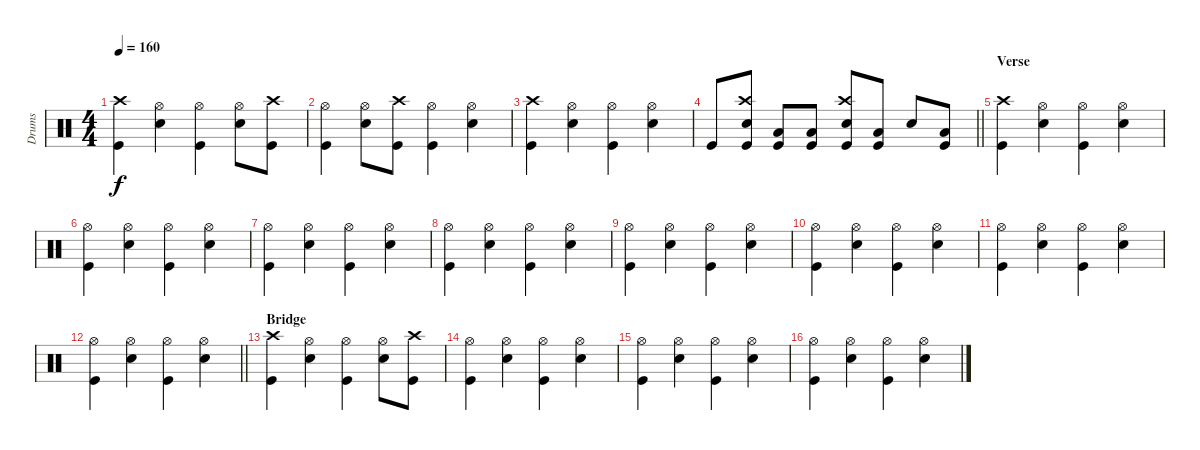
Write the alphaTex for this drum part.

\track ("Drums" "Drums") {instrument percussion}
\staff {score}
\articulation defaults
\ts (4 4)
\tempo 160
\clef neutral
\ks c
("Kick (hit)" "Crash high (hit)").4{dy f} ("Snare (hit) 2" "Hi-Hat (open)").4 ("Kick (hit)" "Hi-Hat (open)").4 ("Snare (hit) 2" "Hi-Hat (open)").8 ("Kick (hit)" "Crash high (hit)").8 |
("Kick (hit)" "Hi-Hat (open)").4 ("Snare (hit) 2" "Hi-Hat (open)").8 ("Kick (hit)" "Crash high (hit)").8 ("Kick (hit)" "Hi-Hat (open)").4 ("Snare (hit) 2" "Hi-Hat (open)").4 |
("Kick (hit)" "Crash high (hit)").4 ("Snare (hit) 2" "Hi-Hat (open)").4 ("Kick (hit)" "Hi-Hat (open)").4 ("Snare (hit) 2" "Hi-Hat (open)").4 |
\barLineRight lightlight "Kick (hit)".8
("Snare (hit) 2" "Kick (hit)" "Crash high (hit)").8 ("Kick (hit)" "Low Floor Tom (hit)").8 ("Kick (hit)" "Low Floor Tom (hit)").8 ("Snare (hit) 2" "Kick (hit)" "Crash high (hit)").8 ("Kick (hit)" "Low Floor Tom (hit)").8 "Snare (hit) 2".8 ("Kick (hit)" "Low Floor Tom (hit)").8 |
\section ("" "Verse")
("Kick (hit)" "Crash high (hit)").4 ("Snare (hit) 2" "Hi-Hat (open)").4 ("Kick (hit)" "Hi-Hat (open)").4 ("Snare (hit) 2" "Hi-Hat (open)").4 |
("Kick (hit)" "Hi-Hat (open)").4 ("Snare (hit) 2" "Hi-Hat (open)").4 ("Kick (hit)" "Hi-Hat (open)").4 ("Snare (hit) 2" "Hi-Hat (open)").4 |
("Kick (hit)" "Hi-Hat (open)").4 ("Snare (hit) 2" "Hi-Hat (open)").4 ("Kick (hit)" "Hi-Hat (open)").4 ("Snare (hit) 2" "Hi-Hat (open)").4 |
("Kick (hit)" "Hi-Hat (open)").4 ("Snare (hit) 2" "Hi-Hat (open)").4 ("Kick (hit)" "Hi-Hat (open)").4 ("Snare (hit) 2" "Hi-Hat (open)").4 |
("Kick (hit)" "Hi-Hat (open)").4 ("Snare (hit) 2" "Hi-Hat (open)").4 ("Kick (hit)" "Hi-Hat (open)").4 ("Snare (hit) 2" "Hi-Hat (open)").4 |
("Kick (hit)" "Hi-Hat (open)").4 ("Snare (hit) 2" "Hi-Hat (open)").4 ("Kick (hit)" "Hi-Hat (open)").4 ("Snare (hit) 2" "Hi-Hat (open)").4 |
("Kick (hit)" "Hi-Hat (open)").4 ("Snare (hit) 2" "Hi-Hat (open)").4 ("Kick (hit)" "Hi-Hat (open)").4 ("Snare (hit) 2" "Hi-Hat (open)").4 |
\barLineRight lightlight
("Kick (hit)" "Hi-Hat (open)").4 ("Snare (hit) 2" "Hi-Hat (open)").4 ("Kick (hit)" "Hi-Hat (open)").4 ("Snare (hit) 2" "Hi-Hat (open)").4 |
\section ("" "Bridge")
("Kick (hit)" "Crash high (hit)").4 ("Snare (hit) 2" "Hi-Hat (open)").4 ("Kick (hit)" "Hi-Hat (open)").4 ("Snare (hit) 2" "Hi-Hat (open)").8 ("Kick (hit)" "Crash high (hit)").8 |
("Kick (hit)" "Hi-Hat (open)").4 ("Snare (hit) 2" "Hi-Hat (open)").4 ("Kick (hit)" "Hi-Hat (open)").4 ("Snare (hit) 2" "Hi-Hat (open)").4 |
("Kick (hit)" "Hi-Hat (open)").4 ("Snare (hit) 2" "Hi-Hat (open)").4 ("Kick (hit)" "Hi-Hat (open)").4 ("Snare (hit) 2" "Hi-Hat (open)").4 |
("Kick (hit)" "Hi-Hat (open)").4 ("Snare (hit) 2" "Hi-Hat (open)").4 ("Kick (hit)" "Hi-Hat (open)").4 ("Snare (hit) 2" "Hi-Hat (open)").4
